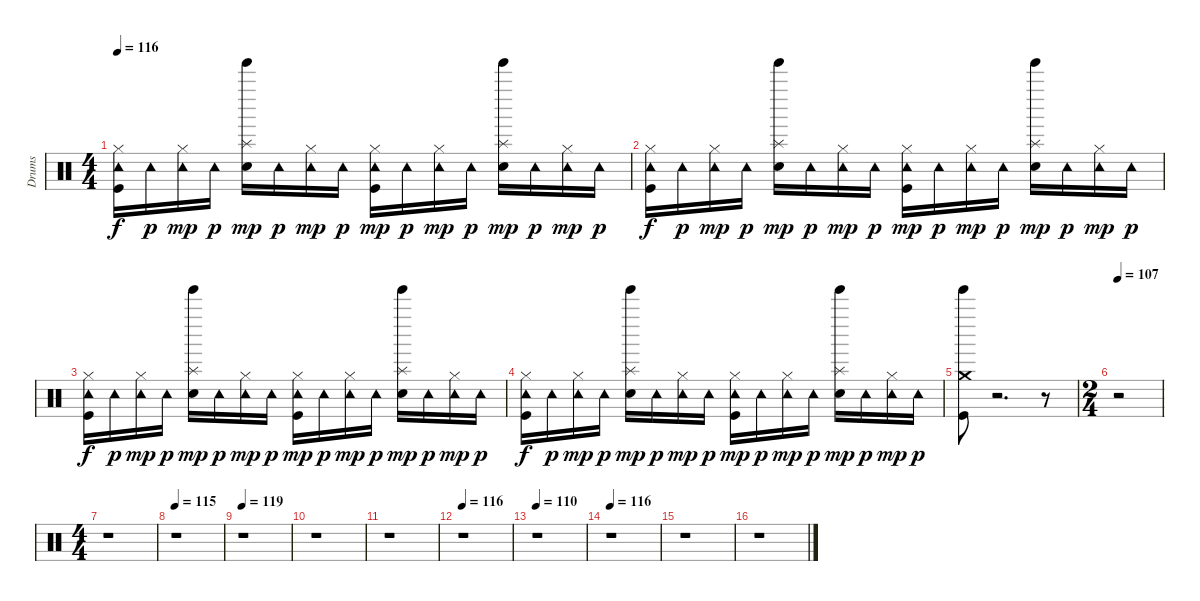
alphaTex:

\track ("Drums" "Drums") {instrument percussion}
\staff {score}
\articulation defaults
\ts (4 4)
\tempo 116
\clef neutral
\ks c
("Kick (hit)" "Hi-Hat (closed)" "Tambourine (hit)").16{dy f} "Tambourine (hit)".16{dy p} ("Hi-Hat (closed)" "Tambourine (hit)").16{dy mp} "Tambourine (hit)".16{dy p} ("Electric Snare (hit)" "Splash (hit)" "Tinkle Bell (hit)").16{dy mp} "Tambourine (hit)".16{dy p} ("Hi-Hat (closed)" "Tambourine (hit)").16{dy mp} "Tambourine (hit)".16{dy p} ("Kick (hit)" "Hi-Hat (closed)" "Tambourine (hit)").16{dy mp} "Tambourine (hit)".16{dy p} ("Hi-Hat (closed)" "Tambourine (hit)").16{dy mp} "Tambourine (hit)".16{dy p} ("Electric Snare (hit)" "Splash (hit)" "Tinkle Bell (hit)").16{dy mp} "Tambourine (hit)".16{dy p} ("Hi-Hat (closed)" "Tambourine (hit)").16{dy mp} "Tambourine (hit)".16{dy p} |
("Kick (hit)" "Hi-Hat (closed)" "Tambourine (hit)").16{dy f} "Tambourine (hit)".16{dy p} ("Hi-Hat (closed)" "Tambourine (hit)").16{dy mp} "Tambourine (hit)".16{dy p} ("Electric Snare (hit)" "Splash (hit)" "Tinkle Bell (hit)").16{dy mp} "Tambourine (hit)".16{dy p} ("Hi-Hat (closed)" "Tambourine (hit)").16{dy mp} "Tambourine (hit)".16{dy p} ("Kick (hit)" "Hi-Hat (closed)" "Tambourine (hit)").16{dy mp} "Tambourine (hit)".16{dy p} ("Hi-Hat (closed)" "Tambourine (hit)").16{dy mp} "Tambourine (hit)".16{dy p} ("Electric Snare (hit)" "Splash (hit)" "Tinkle Bell (hit)").16{dy mp} "Tambourine (hit)".16{dy p} ("Hi-Hat (closed)" "Tambourine (hit)").16{dy mp} "Tambourine (hit)".16{dy p} |
("Kick (hit)" "Hi-Hat (closed)" "Tambourine (hit)").16{dy f} "Tambourine (hit)".16{dy p} ("Hi-Hat (closed)" "Tambourine (hit)").16{dy mp} "Tambourine (hit)".16{dy p} ("Electric Snare (hit)" "Splash (hit)" "Tinkle Bell (hit)").16{dy mp} "Tambourine (hit)".16{dy p} ("Hi-Hat (closed)" "Tambourine (hit)").16{dy mp} "Tambourine (hit)".16{dy p} ("Kick (hit)" "Hi-Hat (closed)" "Tambourine (hit)").16{dy mp} "Tambourine (hit)".16{dy p} ("Hi-Hat (closed)" "Tambourine (hit)").16{dy mp} "Tambourine (hit)".16{dy p} ("Electric Snare (hit)" "Splash (hit)" "Tinkle Bell (hit)").16{dy mp} "Tambourine (hit)".16{dy p} ("Hi-Hat (closed)" "Tambourine (hit)").16{dy mp} "Tambourine (hit)".16{dy p} |
("Kick (hit)" "Hi-Hat (closed)" "Tambourine (hit)").16{dy f} "Tambourine (hit)".16{dy p} ("Hi-Hat (closed)" "Tambourine (hit)").16{dy mp} "Tambourine (hit)".16{dy p} ("Electric Snare (hit)" "Splash (hit)" "Tinkle Bell (hit)").16{dy mp} "Tambourine (hit)".16{dy p} ("Hi-Hat (closed)" "Tambourine (hit)").16{dy mp} "Tambourine (hit)".16{dy p} ("Kick (hit)" "Hi-Hat (closed)" "Tambourine (hit)").16{dy mp} "Tambourine (hit)".16{dy p} ("Hi-Hat (closed)" "Tambourine (hit)").16{dy mp} "Tambourine (hit)".16{dy p} ("Electric Snare (hit)" "Splash (hit)" "Tinkle Bell (hit)").16{dy mp} "Tambourine (hit)".16{dy p} ("Hi-Hat (closed)" "Tambourine (hit)").16{dy mp} "Tambourine (hit)".16{dy p} |
("Kick (hit)" "Crash medium (hit)" "Tinkle Bell (hit)").8 r.2{d} r.8 |
\ts (2 4)
\tempo 107
r.2 |
\ts (4 4)
r.1 |
\tempo 115
r.1 |
\tempo 119
r.1 |
r.1 |
r.1 |
\tempo 116
r.1 |
\tempo 110
r.1 |
\tempo 116
r.1 |
r.1 |
r.1
